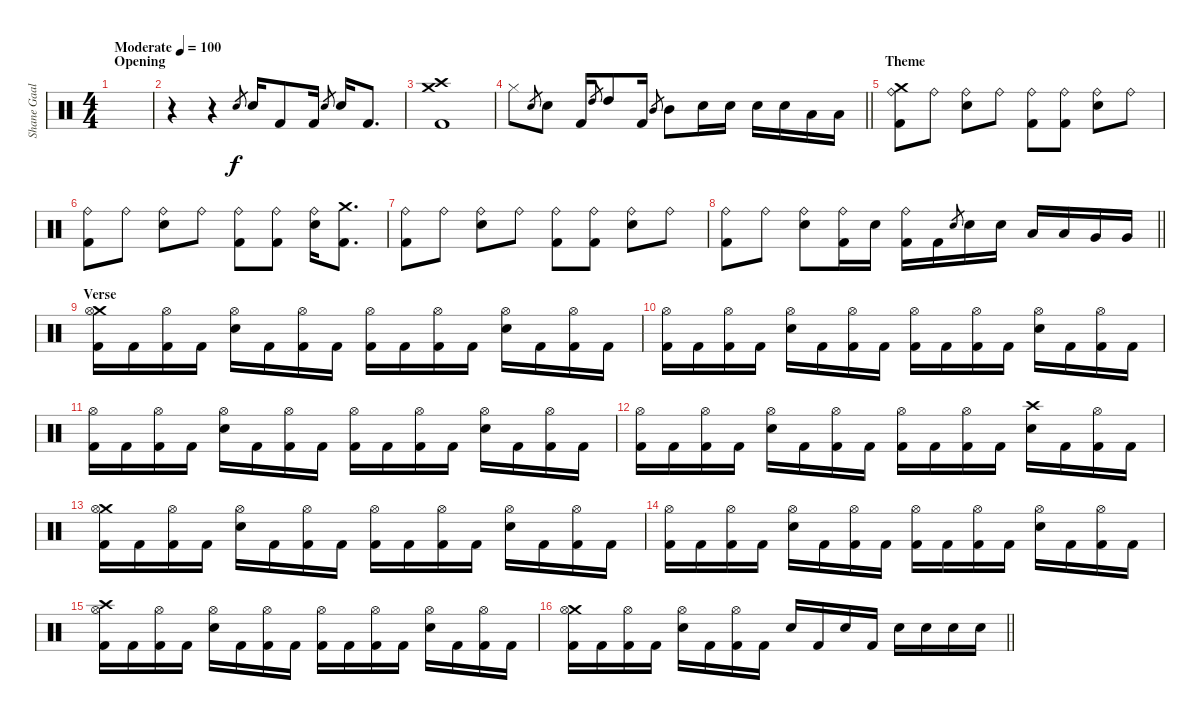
\track ("Shane Gaalaas" "Shane Gaal") {instrument percussion}
\staff {score}
\articulation defaults
\ts (4 4)
\section ("" "Opening")
\tempo (100 "Moderate")
\clef neutral
\ks c
|
r.4 r.4 "Snare (hit) 2".8{gr} "Snare (hit) 2".16 "Kick (hit) 2".8 "Kick (hit) 2".16 "Snare (hit) 2".8{gr} "Snare (hit) 2".16 "Kick (hit) 2".8{d} |
("Crash high (hit)" "Crash medium (hit)" "Kick (hit) 2").1 |
\barLineRight lightlight "Hi-Hat (closed)".8 "Snare (hit) 2".8{gr} "Snare (hit) 2".8 "Kick (hit) 2".16 "High Tom (hit)".8{gr} "High Tom (hit)".8 "Kick (hit) 2".16 "Mid Tom (hit)".8{gr} "Mid Tom (hit)".8 "Snare (hit) 2".16 "Snare (hit) 2".16 "Snare (hit) 2".16 "Snare (hit) 2".16 "Low Tom (hit)".16 "Low Tom (hit)".16
|
\section ("" "Theme")
("Crash medium (hit)" "Ride (bell)" "Kick (hit) 2").8 "Ride (bell)".8 ("Ride (bell)" "Snare (hit) 2").8 "Ride (bell)".8 ("Ride (bell)" "Kick (hit) 2").8 ("Ride (bell)" "Kick (hit) 2").8 ("Ride (bell)" "Snare (hit) 2").8 "Ride (bell)".8 |
("Ride (bell)" "Kick (hit) 2").8 "Ride (bell)".8 ("Ride (bell)" "Snare (hit) 2").8 "Ride (bell)".8 ("Ride (bell)" "Kick (hit) 2").8 ("Ride (bell)" "Kick (hit) 2").8 ("Ride (bell)" "Snare (hit) 2").16 ("Crash medium (hit)" "Kick (hit) 2").8{d} |
("Ride (bell)" "Kick (hit) 2").8 "Ride (bell)".8 ("Ride (bell)" "Snare (hit) 2").8 "Ride (bell)".8 ("Ride (bell)" "Kick (hit) 2").8 ("Ride (bell)" "Kick (hit) 2").8 ("Ride (bell)" "Snare (hit) 2").8 "Ride (bell)".8 |
\barLineRight lightlight
("Ride (bell)" "Kick (hit) 2").8 "Ride (bell)".8 ("Ride (bell)" "Snare (hit) 2").8 ("Ride (bell)" "Kick (hit) 2").16 "Snare (hit) 2".16 ("Ride (bell)" "Kick (hit) 2").16 "Kick (hit) 2".16 "Snare (hit) 2".8{gr} "Snare (hit) 2".16 "Snare (hit) 2".16 "Low Tom (hit)".16 "Low Tom (hit)".16 "Very Low Tom (hit)".16 "Very Low Tom (hit)".16 |
\section ("" "Verse")
("Crash medium (hit)" "Hi-Hat (open)" "Kick (hit) 2").16 "Kick (hit) 2".16 ("Hi-Hat (open)" "Kick (hit) 2").16 "Kick (hit) 2".16 ("Hi-Hat (open)" "Snare (hit) 2").16 "Kick (hit) 2".16 ("Hi-Hat (open)" "Kick (hit) 2").16 "Kick (hit) 2".16 ("Hi-Hat (open)" "Kick (hit) 2").16 "Kick (hit) 2".16 ("Hi-Hat (open)" "Kick (hit) 2").16 "Kick (hit) 2".16 ("Hi-Hat (open)" "Snare (hit) 2").16 "Kick (hit) 2".16 ("Hi-Hat (open)" "Kick (hit) 2").16 "Kick (hit) 2".16 |
("Hi-Hat (open)" "Kick (hit) 2").16 "Kick (hit) 2".16 ("Hi-Hat (open)" "Kick (hit) 2").16 "Kick (hit) 2".16 ("Hi-Hat (open)" "Snare (hit) 2").16 "Kick (hit) 2".16 ("Hi-Hat (open)" "Kick (hit) 2").16 "Kick (hit) 2".16 ("Hi-Hat (open)" "Kick (hit) 2").16 "Kick (hit) 2".16 ("Hi-Hat (open)" "Kick (hit) 2").16 "Kick (hit) 2".16 ("Hi-Hat (open)" "Snare (hit) 2").16 "Kick (hit) 2".16 ("Hi-Hat (open)" "Kick (hit) 2").16 "Kick (hit) 2".16 |
("Hi-Hat (open)" "Kick (hit) 2").16 "Kick (hit) 2".16 ("Hi-Hat (open)" "Kick (hit) 2").16 "Kick (hit) 2".16 ("Hi-Hat (open)" "Snare (hit) 2").16 "Kick (hit) 2".16 ("Hi-Hat (open)" "Kick (hit) 2").16 "Kick (hit) 2".16 ("Hi-Hat (open)" "Kick (hit) 2").16 "Kick (hit) 2".16 ("Hi-Hat (open)" "Kick (hit) 2").16 "Kick (hit) 2".16 ("Hi-Hat (open)" "Snare (hit) 2").16 "Kick (hit) 2".16 ("Hi-Hat (open)" "Kick (hit) 2").16 "Kick (hit) 2".16 |
("Hi-Hat (open)" "Kick (hit) 2").16 "Kick (hit) 2".16 ("Hi-Hat (open)" "Kick (hit) 2").16 "Kick (hit) 2".16 ("Hi-Hat (open)" "Snare (hit) 2").16 "Kick (hit) 2".16 ("Hi-Hat (open)" "Kick (hit) 2").16 "Kick (hit) 2".16 ("Hi-Hat (open)" "Kick (hit) 2").16 "Kick (hit) 2".16 ("Hi-Hat (open)" "Kick (hit) 2").16 "Kick (hit) 2".16 ("Crash high (hit)" "Snare (hit) 2").16 "Kick (hit) 2".16 ("Hi-Hat (open)" "Kick (hit) 2").16 "Kick (hit) 2".16 |
("Crash medium (hit)" "Hi-Hat (open)" "Kick (hit) 2").16 "Kick (hit) 2".16 ("Hi-Hat (open)" "Kick (hit) 2").16 "Kick (hit) 2".16 ("Hi-Hat (open)" "Snare (hit) 2").16 "Kick (hit) 2".16 ("Hi-Hat (open)" "Kick (hit) 2").16 "Kick (hit) 2".16 ("Hi-Hat (open)" "Kick (hit) 2").16 "Kick (hit) 2".16 ("Hi-Hat (open)" "Kick (hit) 2").16 "Kick (hit) 2".16 ("Hi-Hat (open)" "Snare (hit) 2").16 "Kick (hit) 2".16 ("Hi-Hat (open)" "Kick (hit) 2").16 "Kick (hit) 2".16 |
("Hi-Hat (open)" "Kick (hit) 2").16 "Kick (hit) 2".16 ("Hi-Hat (open)" "Kick (hit) 2").16 "Kick (hit) 2".16 ("Hi-Hat (open)" "Snare (hit) 2").16 "Kick (hit) 2".16 ("Hi-Hat (open)" "Kick (hit) 2").16 "Kick (hit) 2".16 ("Hi-Hat (open)" "Kick (hit) 2").16 "Kick (hit) 2".16 ("Hi-Hat (open)" "Kick (hit) 2").16 "Kick (hit) 2".16 ("Hi-Hat (open)" "Snare (hit) 2").16 "Kick (hit) 2".16 ("Hi-Hat (open)" "Kick (hit) 2").16 "Kick (hit) 2".16 |
("Crash high (hit)" "Hi-Hat (open)" "Kick (hit) 2").16 "Kick (hit) 2".16 ("Hi-Hat (open)" "Kick (hit) 2").16 "Kick (hit) 2".16 ("Hi-Hat (open)" "Snare (hit) 2").16 "Kick (hit) 2".16 ("Hi-Hat (open)" "Kick (hit) 2").16 "Kick (hit) 2".16 ("Hi-Hat (open)" "Kick (hit) 2").16 "Kick (hit) 2".16 ("Hi-Hat (open)" "Kick (hit) 2").16 "Kick (hit) 2".16 ("Hi-Hat (open)" "Snare (hit) 2").16 "Kick (hit) 2".16 ("Hi-Hat (open)" "Kick (hit) 2").16 "Kick (hit) 2".16 |
\barLineRight lightlight
("Crash medium (hit)" "Hi-Hat (open)" "Kick (hit) 2").16 "Kick (hit) 2".16 ("Hi-Hat (open)" "Kick (hit) 2").16 "Kick (hit) 2".16 ("Hi-Hat (open)" "Snare (hit) 2").16 "Kick (hit) 2".16 ("Hi-Hat (open)" "Kick (hit) 2").16 "Kick (hit) 2".16 "Snare (hit) 2".16 "Kick (hit) 2".16 "Snare (hit) 2".16 "Kick (hit) 2".16 "Snare (hit) 2".16 "Snare (hit) 2".16 "Snare (hit) 2".16 "Snare (hit) 2".16
